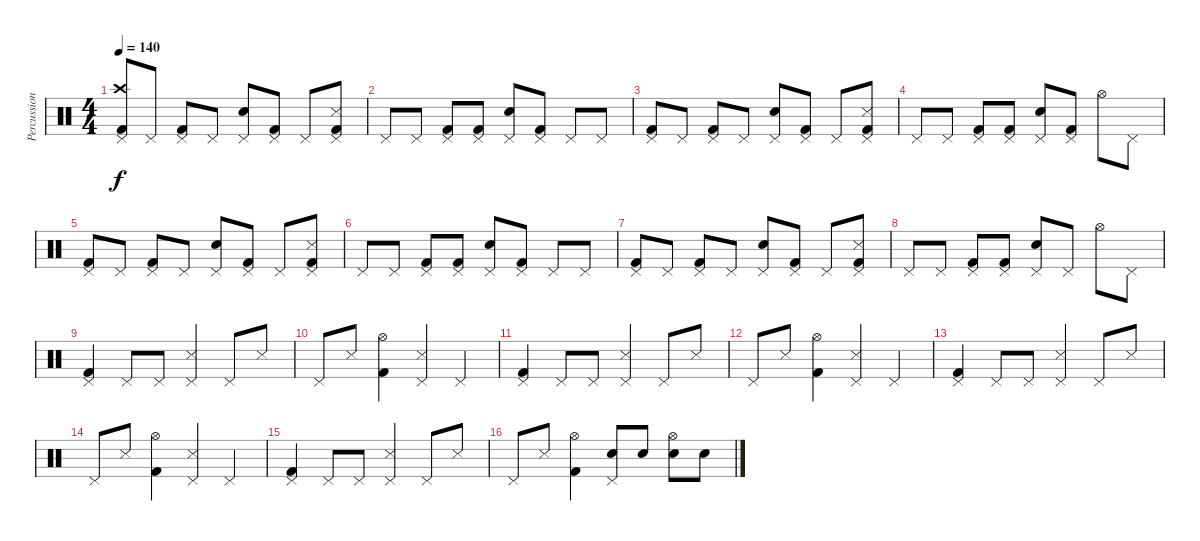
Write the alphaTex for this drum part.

\track ("Percussion" "Percussion") {instrument percussion}
\staff {score}
\articulation defaults
\ts (4 4)
\tempo 140
\clef neutral
\ks c
("Pedal Hi-Hat (hit)" "Crash high (hit)" "Kick (hit) 2").8{dy f} "Pedal Hi-Hat (hit)".8 ("Pedal Hi-Hat (hit)" "Kick (hit) 2").8 "Pedal Hi-Hat (hit)".8 ("Pedal Hi-Hat (hit)" "Electric Snare (hit)").8 ("Pedal Hi-Hat (hit)" "Kick (hit) 2").8 "Pedal Hi-Hat (hit)".8 ("Snare (side stick) 3" "Pedal Hi-Hat (hit)" "Kick (hit) 2").8 |
"Pedal Hi-Hat (hit)".8 "Pedal Hi-Hat (hit)".8 ("Pedal Hi-Hat (hit)" "Kick (hit) 2").8 ("Pedal Hi-Hat (hit)" "Kick (hit) 2").8 ("Electric Snare (hit)" "Pedal Hi-Hat (hit)").8 ("Pedal Hi-Hat (hit)" "Kick (hit) 2").8 "Pedal Hi-Hat (hit)".8 "Pedal Hi-Hat (hit)".8 |
("Pedal Hi-Hat (hit)" "Kick (hit) 2").8 "Pedal Hi-Hat (hit)".8 ("Pedal Hi-Hat (hit)" "Kick (hit) 2").8 "Pedal Hi-Hat (hit)".8 ("Pedal Hi-Hat (hit)" "Electric Snare (hit)").8 ("Pedal Hi-Hat (hit)" "Kick (hit) 2").8 "Pedal Hi-Hat (hit)".8 ("Snare (side stick) 3" "Pedal Hi-Hat (hit)" "Kick (hit) 2").8 |
"Pedal Hi-Hat (hit)".8 "Pedal Hi-Hat (hit)".8 ("Pedal Hi-Hat (hit)" "Kick (hit) 2").8 ("Pedal Hi-Hat (hit)" "Kick (hit) 2").8 ("Electric Snare (hit)" "Pedal Hi-Hat (hit)").8 ("Pedal Hi-Hat (hit)" "Kick (hit) 2").8 "Hi-Hat (open)".8 "Pedal Hi-Hat (hit)".8 |
("Pedal Hi-Hat (hit)" "Kick (hit) 2").8 "Pedal Hi-Hat (hit)".8 ("Pedal Hi-Hat (hit)" "Kick (hit) 2").8 "Pedal Hi-Hat (hit)".8 ("Pedal Hi-Hat (hit)" "Electric Snare (hit)").8 ("Pedal Hi-Hat (hit)" "Kick (hit) 2").8 "Pedal Hi-Hat (hit)".8 ("Snare (side stick) 3" "Pedal Hi-Hat (hit)" "Kick (hit) 2").8 |
"Pedal Hi-Hat (hit)".8 "Pedal Hi-Hat (hit)".8 ("Pedal Hi-Hat (hit)" "Kick (hit) 2").8 ("Pedal Hi-Hat (hit)" "Kick (hit) 2").8 ("Electric Snare (hit)" "Pedal Hi-Hat (hit)").8 ("Pedal Hi-Hat (hit)" "Kick (hit) 2").8 "Pedal Hi-Hat (hit)".8 "Pedal Hi-Hat (hit)".8 |
("Pedal Hi-Hat (hit)" "Kick (hit) 2").8 "Pedal Hi-Hat (hit)".8 ("Pedal Hi-Hat (hit)" "Kick (hit) 2").8 "Pedal Hi-Hat (hit)".8 ("Pedal Hi-Hat (hit)" "Electric Snare (hit)").8 ("Pedal Hi-Hat (hit)" "Kick (hit) 2").8 "Pedal Hi-Hat (hit)".8 ("Snare (side stick) 3" "Pedal Hi-Hat (hit)" "Kick (hit) 2").8 |
"Pedal Hi-Hat (hit)".8 "Pedal Hi-Hat (hit)".8 ("Pedal Hi-Hat (hit)" "Kick (hit) 2").8 ("Pedal Hi-Hat (hit)" "Kick (hit) 2").8 ("Electric Snare (hit)" "Pedal Hi-Hat (hit)").8 "Pedal Hi-Hat (hit)".8 "Hi-Hat (open)".8 "Pedal Hi-Hat (hit)".8 |
("Pedal Hi-Hat (hit)" "Kick (hit) 2").4 "Pedal Hi-Hat (hit)".8 "Pedal Hi-Hat (hit)".8 ("Snare (side stick) 3" "Pedal Hi-Hat (hit)").4 "Pedal Hi-Hat (hit)".8 "Snare (side stick) 3".8 |
"Pedal Hi-Hat (hit)".8 "Snare (side stick) 3".8 ("Kick (hit) 2" "Hi-Hat (open)").4 ("Snare (side stick) 3" "Pedal Hi-Hat (hit)").4 "Pedal Hi-Hat (hit)".4 |
("Pedal Hi-Hat (hit)" "Kick (hit) 2").4 "Pedal Hi-Hat (hit)".8 "Pedal Hi-Hat (hit)".8 ("Snare (side stick) 3" "Pedal Hi-Hat (hit)").4 "Pedal Hi-Hat (hit)".8 "Snare (side stick) 3".8 |
"Pedal Hi-Hat (hit)".8 "Snare (side stick) 3".8 ("Kick (hit) 2" "Hi-Hat (open)").4 ("Snare (side stick) 3" "Pedal Hi-Hat (hit)").4 "Pedal Hi-Hat (hit)".4 |
("Pedal Hi-Hat (hit)" "Kick (hit) 2").4 "Pedal Hi-Hat (hit)".8 "Pedal Hi-Hat (hit)".8 ("Snare (side stick) 3" "Pedal Hi-Hat (hit)").4 "Pedal Hi-Hat (hit)".8 "Snare (side stick) 3".8 |
"Pedal Hi-Hat (hit)".8 "Snare (side stick) 3".8 ("Kick (hit) 2" "Hi-Hat (open)").4 ("Snare (side stick) 3" "Pedal Hi-Hat (hit)").4 "Pedal Hi-Hat (hit)".4 |
("Pedal Hi-Hat (hit)" "Kick (hit) 2").4 "Pedal Hi-Hat (hit)".8 "Pedal Hi-Hat (hit)".8 ("Snare (side stick) 3" "Pedal Hi-Hat (hit)").4 "Pedal Hi-Hat (hit)".8 "Snare (side stick) 3".8 |
"Pedal Hi-Hat (hit)".8 "Snare (side stick) 3".8 ("Kick (hit) 2" "Hi-Hat (open)").4 ("Electric Snare (hit)" "Pedal Hi-Hat (hit)").8 "Electric Snare (hit)".8 ("Electric Snare (hit)" "Hi-Hat (open)").8 "Electric Snare (hit)".8
